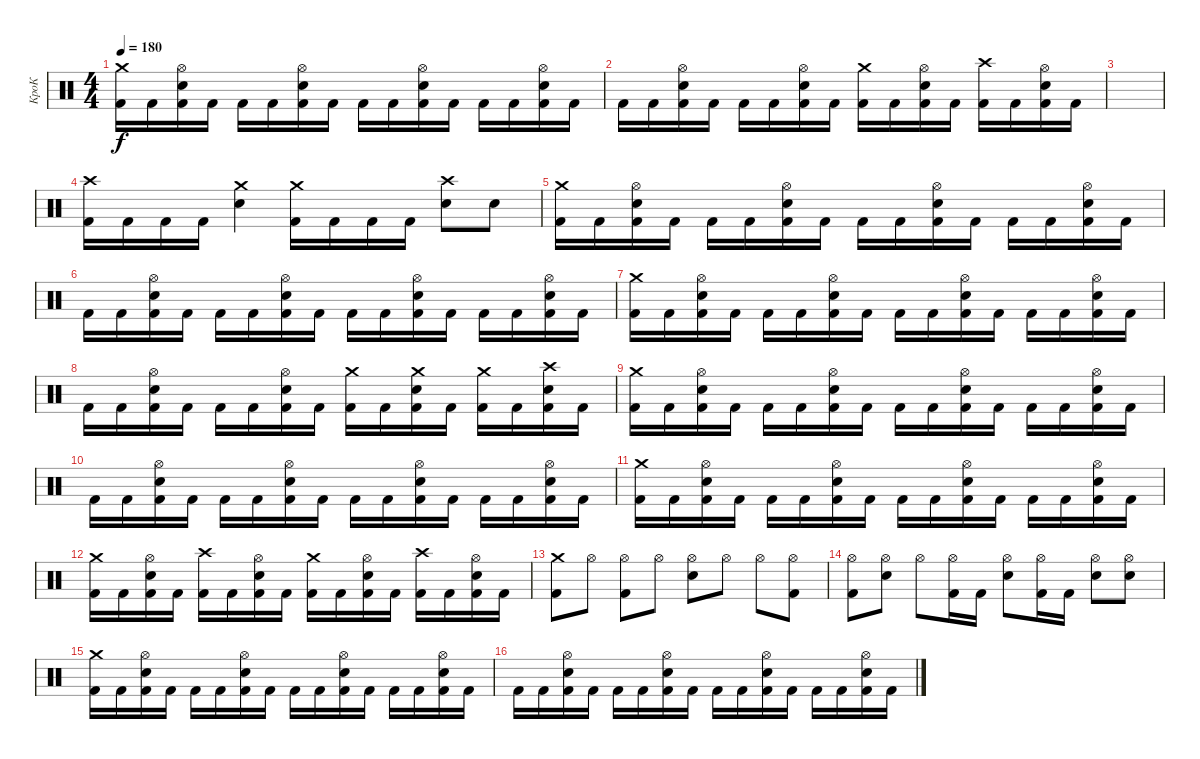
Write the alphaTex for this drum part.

\track ("КроК" "КроК") {instrument percussion}
\staff {score}
\articulation defaults
\ts (4 4)
\tempo 180
\clef neutral
\ks c
("Kick (hit) 2" "Crash medium (hit)").16{dy f} "Kick (hit) 2".16 ("Kick (hit) 2" "Electric Snare (hit)" "Hi-Hat (open)").16 "Kick (hit) 2".16 "Kick (hit) 2".16 "Kick (hit) 2".16 ("Kick (hit) 2" "Electric Snare (hit)" "Hi-Hat (open)").16 "Kick (hit) 2".16 "Kick (hit) 2".16 "Kick (hit) 2".16 ("Kick (hit) 2" "Electric Snare (hit)" "Hi-Hat (open)").16 "Kick (hit) 2".16 "Kick (hit) 2".16 "Kick (hit) 2".16 ("Kick (hit) 2" "Electric Snare (hit)" "Hi-Hat (open)").16 "Kick (hit) 2".16 |
"Kick (hit) 2".16 "Kick (hit) 2".16 ("Kick (hit) 2" "Electric Snare (hit)" "Hi-Hat (open)").16 "Kick (hit) 2".16 "Kick (hit) 2".16 "Kick (hit) 2".16 ("Kick (hit) 2" "Electric Snare (hit)" "Hi-Hat (open)").16 "Kick (hit) 2".16 ("Kick (hit) 2" "Crash medium (hit)").16 "Kick (hit) 2".16 ("Kick (hit) 2" "Electric Snare (hit)" "Hi-Hat (open)").16 "Kick (hit) 2".16 ("Kick (hit) 2" "Crash high (hit)").16 "Kick (hit) 2".16 ("Kick (hit) 2" "Electric Snare (hit)" "Hi-Hat (open)").16 "Kick (hit) 2".16 |
|
("Crash high (hit)" "Kick (hit) 2").16 "Kick (hit) 2".16 "Kick (hit) 2".16 "Kick (hit) 2".16 ("Crash medium (hit)" "Electric Snare (hit)").4 ("Crash medium (hit)" "Kick (hit) 2").16 "Kick (hit) 2".16 "Kick (hit) 2".16 "Kick (hit) 2".16 ("Crash high (hit)" "Electric Snare (hit)").8 "Electric Snare (hit)".8 |
("Kick (hit) 2" "Crash medium (hit)").16 "Kick (hit) 2".16 ("Kick (hit) 2" "Electric Snare (hit)" "Hi-Hat (open)").16 "Kick (hit) 2".16 "Kick (hit) 2".16 "Kick (hit) 2".16 ("Kick (hit) 2" "Electric Snare (hit)" "Hi-Hat (open)").16 "Kick (hit) 2".16 "Kick (hit) 2".16 "Kick (hit) 2".16 ("Kick (hit) 2" "Electric Snare (hit)" "Hi-Hat (open)").16 "Kick (hit) 2".16 "Kick (hit) 2".16 "Kick (hit) 2".16 ("Kick (hit) 2" "Electric Snare (hit)" "Hi-Hat (open)").16 "Kick (hit) 2".16 |
"Kick (hit) 2".16 "Kick (hit) 2".16 ("Kick (hit) 2" "Electric Snare (hit)" "Hi-Hat (open)").16 "Kick (hit) 2".16 "Kick (hit) 2".16 "Kick (hit) 2".16 ("Kick (hit) 2" "Electric Snare (hit)" "Hi-Hat (open)").16 "Kick (hit) 2".16 "Kick (hit) 2".16 "Kick (hit) 2".16 ("Kick (hit) 2" "Electric Snare (hit)" "Hi-Hat (open)").16 "Kick (hit) 2".16 "Kick (hit) 2".16 "Kick (hit) 2".16 ("Kick (hit) 2" "Electric Snare (hit)" "Hi-Hat (open)").16 "Kick (hit) 2".16 |
("Kick (hit) 2" "Crash medium (hit)").16 "Kick (hit) 2".16 ("Kick (hit) 2" "Electric Snare (hit)" "Hi-Hat (open)").16 "Kick (hit) 2".16 "Kick (hit) 2".16 "Kick (hit) 2".16 ("Kick (hit) 2" "Electric Snare (hit)" "Hi-Hat (open)").16 "Kick (hit) 2".16 "Kick (hit) 2".16 "Kick (hit) 2".16 ("Kick (hit) 2" "Electric Snare (hit)" "Hi-Hat (open)").16 "Kick (hit) 2".16 "Kick (hit) 2".16 "Kick (hit) 2".16 ("Kick (hit) 2" "Electric Snare (hit)" "Hi-Hat (open)").16 "Kick (hit) 2".16 |
"Kick (hit) 2".16 "Kick (hit) 2".16 ("Kick (hit) 2" "Electric Snare (hit)" "Hi-Hat (open)").16 "Kick (hit) 2".16 "Kick (hit) 2".16 "Kick (hit) 2".16 ("Kick (hit) 2" "Electric Snare (hit)" "Hi-Hat (open)").16 "Kick (hit) 2".16 ("Kick (hit) 2" "Crash medium (hit)").16 "Kick (hit) 2".16 ("Kick (hit) 2" "Electric Snare (hit)" "Crash medium (hit)").16 "Kick (hit) 2".16 ("Kick (hit) 2" "Crash medium (hit)").16 "Kick (hit) 2".16 ("Kick (hit) 2" "Electric Snare (hit)" "Crash high (hit)").16 "Kick (hit) 2".16 |
("Kick (hit) 2" "Crash medium (hit)").16 "Kick (hit) 2".16 ("Kick (hit) 2" "Electric Snare (hit)" "Hi-Hat (open)").16 "Kick (hit) 2".16 "Kick (hit) 2".16 "Kick (hit) 2".16 ("Kick (hit) 2" "Electric Snare (hit)" "Hi-Hat (open)").16 "Kick (hit) 2".16 "Kick (hit) 2".16 "Kick (hit) 2".16 ("Kick (hit) 2" "Electric Snare (hit)" "Hi-Hat (open)").16 "Kick (hit) 2".16 "Kick (hit) 2".16 "Kick (hit) 2".16 ("Kick (hit) 2" "Electric Snare (hit)" "Hi-Hat (open)").16 "Kick (hit) 2".16 |
"Kick (hit) 2".16 "Kick (hit) 2".16 ("Kick (hit) 2" "Electric Snare (hit)" "Hi-Hat (open)").16 "Kick (hit) 2".16 "Kick (hit) 2".16 "Kick (hit) 2".16 ("Kick (hit) 2" "Electric Snare (hit)" "Hi-Hat (open)").16 "Kick (hit) 2".16 "Kick (hit) 2".16 "Kick (hit) 2".16 ("Kick (hit) 2" "Electric Snare (hit)" "Hi-Hat (open)").16 "Kick (hit) 2".16 "Kick (hit) 2".16 "Kick (hit) 2".16 ("Kick (hit) 2" "Electric Snare (hit)" "Hi-Hat (open)").16 "Kick (hit) 2".16 |
("Kick (hit) 2" "Crash medium (hit)").16 "Kick (hit) 2".16 ("Kick (hit) 2" "Electric Snare (hit)" "Hi-Hat (open)").16 "Kick (hit) 2".16 "Kick (hit) 2".16 "Kick (hit) 2".16 ("Kick (hit) 2" "Electric Snare (hit)" "Hi-Hat (open)").16 "Kick (hit) 2".16 "Kick (hit) 2".16 "Kick (hit) 2".16 ("Kick (hit) 2" "Electric Snare (hit)" "Hi-Hat (open)").16 "Kick (hit) 2".16 "Kick (hit) 2".16 "Kick (hit) 2".16 ("Kick (hit) 2" "Electric Snare (hit)" "Hi-Hat (open)").16 "Kick (hit) 2".16 |
("Kick (hit) 2" "Crash medium (hit)").16 "Kick (hit) 2".16 ("Kick (hit) 2" "Electric Snare (hit)" "Hi-Hat (open)").16 "Kick (hit) 2".16 ("Kick (hit) 2" "Crash high (hit)").16 "Kick (hit) 2".16 ("Kick (hit) 2" "Electric Snare (hit)" "Hi-Hat (open)").16 "Kick (hit) 2".16 ("Kick (hit) 2" "Crash medium (hit)").16 "Kick (hit) 2".16 ("Kick (hit) 2" "Electric Snare (hit)" "Hi-Hat (open)").16 "Kick (hit) 2".16 ("Kick (hit) 2" "Crash high (hit)").16 "Kick (hit) 2".16 ("Kick (hit) 2" "Electric Snare (hit)" "Hi-Hat (open)").16 "Kick (hit) 2".16 |
("Kick (hit) 2" "Crash medium (hit)").8 "Hi-Hat (open)".8 ("Kick (hit) 2" "Hi-Hat (open)").8 "Hi-Hat (open)".8 ("Electric Snare (hit)" "Hi-Hat (open)").8 "Hi-Hat (open)".8 "Hi-Hat (open)".8 ("Kick (hit) 2" "Hi-Hat (open)").8 |
("Kick (hit) 2" "Hi-Hat (open)").8 ("Electric Snare (hit)" "Hi-Hat (open)").8 "Hi-Hat (open)".8 ("Kick (hit) 2" "Hi-Hat (open)").16 "Kick (hit) 2".16 ("Electric Snare (hit)" "Hi-Hat (open)").8 ("Kick (hit) 2" "Hi-Hat (open)").16 "Kick (hit) 2".16 ("Electric Snare (hit)" "Hi-Hat (open)").8 ("Electric Snare (hit)" "Hi-Hat (open)").8 |
("Kick (hit) 2" "Crash medium (hit)").16 "Kick (hit) 2".16 ("Kick (hit) 2" "Electric Snare (hit)" "Hi-Hat (open)").16 "Kick (hit) 2".16 "Kick (hit) 2".16 "Kick (hit) 2".16 ("Kick (hit) 2" "Electric Snare (hit)" "Hi-Hat (open)").16 "Kick (hit) 2".16 "Kick (hit) 2".16 "Kick (hit) 2".16 ("Kick (hit) 2" "Electric Snare (hit)" "Hi-Hat (open)").16 "Kick (hit) 2".16 "Kick (hit) 2".16 "Kick (hit) 2".16 ("Kick (hit) 2" "Electric Snare (hit)" "Hi-Hat (open)").16 "Kick (hit) 2".16 |
"Kick (hit) 2".16 "Kick (hit) 2".16 ("Kick (hit) 2" "Electric Snare (hit)" "Hi-Hat (open)").16 "Kick (hit) 2".16 "Kick (hit) 2".16 "Kick (hit) 2".16 ("Kick (hit) 2" "Electric Snare (hit)" "Hi-Hat (open)").16 "Kick (hit) 2".16 "Kick (hit) 2".16 "Kick (hit) 2".16 ("Kick (hit) 2" "Electric Snare (hit)" "Hi-Hat (open)").16 "Kick (hit) 2".16 "Kick (hit) 2".16 "Kick (hit) 2".16 ("Kick (hit) 2" "Electric Snare (hit)" "Hi-Hat (open)").16 "Kick (hit) 2".16
